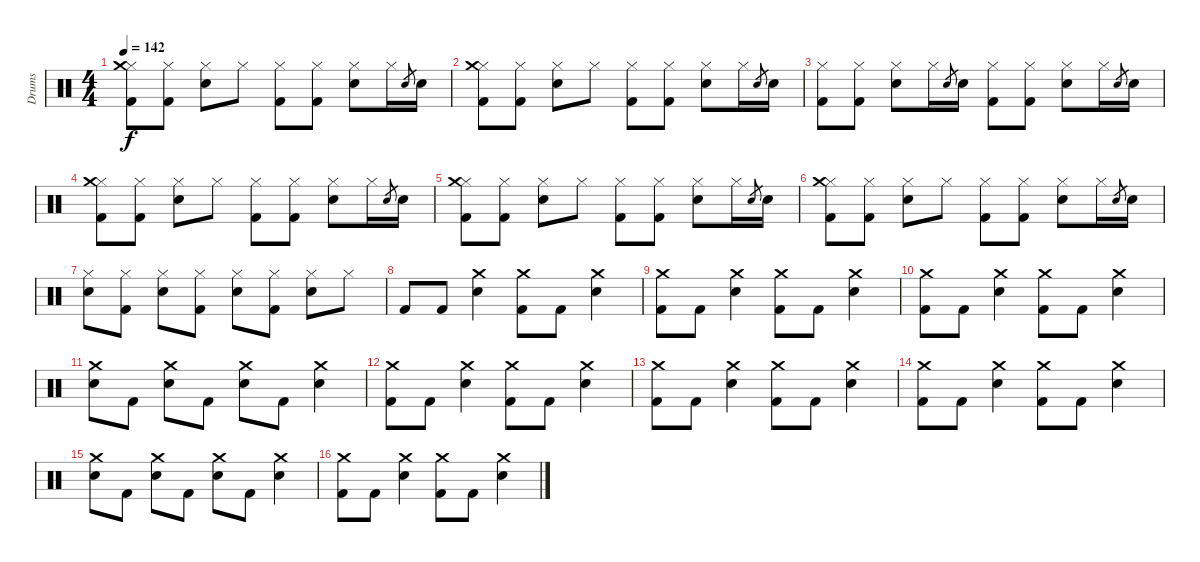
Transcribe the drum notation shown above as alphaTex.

\track ("Drums" "Drums") {instrument percussion}
\staff {score}
\articulation defaults
\ts (4 4)
\tempo 142
\clef neutral
\ks c
("Hi-Hat (closed)" "Crash medium (hit)" "Kick (hit) 2").8{dy f} ("Hi-Hat (closed)" "Kick (hit) 2").8 ("Hi-Hat (closed)" "Electric Snare (hit)").8 "Hi-Hat (closed)".8 ("Hi-Hat (closed)" "Kick (hit) 2").8 ("Hi-Hat (closed)" "Kick (hit) 2").8 ("Hi-Hat (closed)" "Electric Snare (hit)").8 "Hi-Hat (closed)".16 "Electric Snare (hit)".8{gr} "Electric Snare (hit)".16 |
("Hi-Hat (closed)" "Crash medium (hit)" "Kick (hit) 2").8 ("Hi-Hat (closed)" "Kick (hit) 2").8 ("Hi-Hat (closed)" "Electric Snare (hit)").8 "Hi-Hat (closed)".8 ("Hi-Hat (closed)" "Kick (hit) 2").8 ("Hi-Hat (closed)" "Kick (hit) 2").8 ("Hi-Hat (closed)" "Electric Snare (hit)").8 "Hi-Hat (closed)".16 "Electric Snare (hit)".8{gr} "Electric Snare (hit)".16 |
("Hi-Hat (closed)" "Kick (hit) 2").8 ("Hi-Hat (closed)" "Kick (hit) 2").8 ("Hi-Hat (closed)" "Electric Snare (hit)").8 "Hi-Hat (closed)".16 "Electric Snare (hit)".8{gr} "Electric Snare (hit)".16 ("Hi-Hat (closed)" "Kick (hit) 2").8 ("Hi-Hat (closed)" "Kick (hit) 2").8 ("Hi-Hat (closed)" "Electric Snare (hit)").8 "Hi-Hat (closed)".16 "Electric Snare (hit)".8{gr} "Electric Snare (hit)".16 |
("Hi-Hat (closed)" "Crash medium (hit)" "Kick (hit) 2").8 ("Hi-Hat (closed)" "Kick (hit) 2").8 ("Hi-Hat (closed)" "Electric Snare (hit)").8 "Hi-Hat (closed)".8 ("Hi-Hat (closed)" "Kick (hit) 2").8 ("Hi-Hat (closed)" "Kick (hit) 2").8 ("Hi-Hat (closed)" "Electric Snare (hit)").8 "Hi-Hat (closed)".16 "Electric Snare (hit)".8{gr} "Electric Snare (hit)".16 |
("Hi-Hat (closed)" "Crash medium (hit)" "Kick (hit) 2").8 ("Hi-Hat (closed)" "Kick (hit) 2").8 ("Hi-Hat (closed)" "Electric Snare (hit)").8 "Hi-Hat (closed)".8 ("Hi-Hat (closed)" "Kick (hit) 2").8 ("Hi-Hat (closed)" "Kick (hit) 2").8 ("Hi-Hat (closed)" "Electric Snare (hit)").8 "Hi-Hat (closed)".16 "Electric Snare (hit)".8{gr} "Electric Snare (hit)".16 |
("Hi-Hat (closed)" "Crash medium (hit)" "Kick (hit) 2").8 ("Hi-Hat (closed)" "Kick (hit) 2").8 ("Hi-Hat (closed)" "Electric Snare (hit)").8 "Hi-Hat (closed)".8 ("Hi-Hat (closed)" "Kick (hit) 2").8 ("Hi-Hat (closed)" "Kick (hit) 2").8 ("Hi-Hat (closed)" "Electric Snare (hit)").8 "Hi-Hat (closed)".16 "Electric Snare (hit)".8{gr} "Electric Snare (hit)".16 |
("Hi-Hat (closed)" "Electric Snare (hit)").8 ("Hi-Hat (closed)" "Kick (hit) 2").8 ("Hi-Hat (closed)" "Electric Snare (hit)").8 ("Hi-Hat (closed)" "Kick (hit) 2").8 ("Hi-Hat (closed)" "Electric Snare (hit)").8 ("Hi-Hat (closed)" "Kick (hit) 2").8 ("Hi-Hat (closed)" "Electric Snare (hit)").8 "Hi-Hat (closed)".8 |
"Kick (hit) 2".8 "Kick (hit) 2".8 ("Crash medium (hit)" "Electric Snare (hit)").4 ("Crash medium (hit)" "Kick (hit) 2").8 "Kick (hit) 2".8 ("Crash medium (hit)" "Electric Snare (hit)").4 |
("Crash medium (hit)" "Kick (hit) 2").8 "Kick (hit) 2".8 ("Crash medium (hit)" "Electric Snare (hit)").4 ("Crash medium (hit)" "Kick (hit) 2").8 "Kick (hit) 2".8 ("Crash medium (hit)" "Electric Snare (hit)").4 |
("Crash medium (hit)" "Kick (hit) 2").8 "Kick (hit) 2".8 ("Crash medium (hit)" "Electric Snare (hit)").4 ("Crash medium (hit)" "Kick (hit) 2").8 "Kick (hit) 2".8 ("Crash medium (hit)" "Electric Snare (hit)").4 |
("Crash medium (hit)" "Electric Snare (hit)").8 "Kick (hit) 2".8 ("Crash medium (hit)" "Electric Snare (hit)").8 "Kick (hit) 2".8 ("Crash medium (hit)" "Electric Snare (hit)").8 "Kick (hit) 2".8 ("Crash medium (hit)" "Electric Snare (hit)").4 |
("Crash medium (hit)" "Kick (hit) 2").8 "Kick (hit) 2".8 ("Crash medium (hit)" "Electric Snare (hit)").4 ("Crash medium (hit)" "Kick (hit) 2").8 "Kick (hit) 2".8 ("Crash medium (hit)" "Electric Snare (hit)").4 |
("Crash medium (hit)" "Kick (hit) 2").8 "Kick (hit) 2".8 ("Crash medium (hit)" "Electric Snare (hit)").4 ("Crash medium (hit)" "Kick (hit) 2").8 "Kick (hit) 2".8 ("Crash medium (hit)" "Electric Snare (hit)").4 |
("Crash medium (hit)" "Kick (hit) 2").8 "Kick (hit) 2".8 ("Crash medium (hit)" "Electric Snare (hit)").4 ("Crash medium (hit)" "Kick (hit) 2").8 "Kick (hit) 2".8 ("Crash medium (hit)" "Electric Snare (hit)").4 |
("Crash medium (hit)" "Electric Snare (hit)").8 "Kick (hit) 2".8 ("Crash medium (hit)" "Electric Snare (hit)").8 "Kick (hit) 2".8 ("Crash medium (hit)" "Electric Snare (hit)").8 "Kick (hit) 2".8 ("Crash medium (hit)" "Electric Snare (hit)").4 |
("Crash medium (hit)" "Kick (hit) 2").8 "Kick (hit) 2".8 ("Crash medium (hit)" "Electric Snare (hit)").4 ("Crash medium (hit)" "Kick (hit) 2").8 "Kick (hit) 2".8 ("Crash medium (hit)" "Electric Snare (hit)").4
